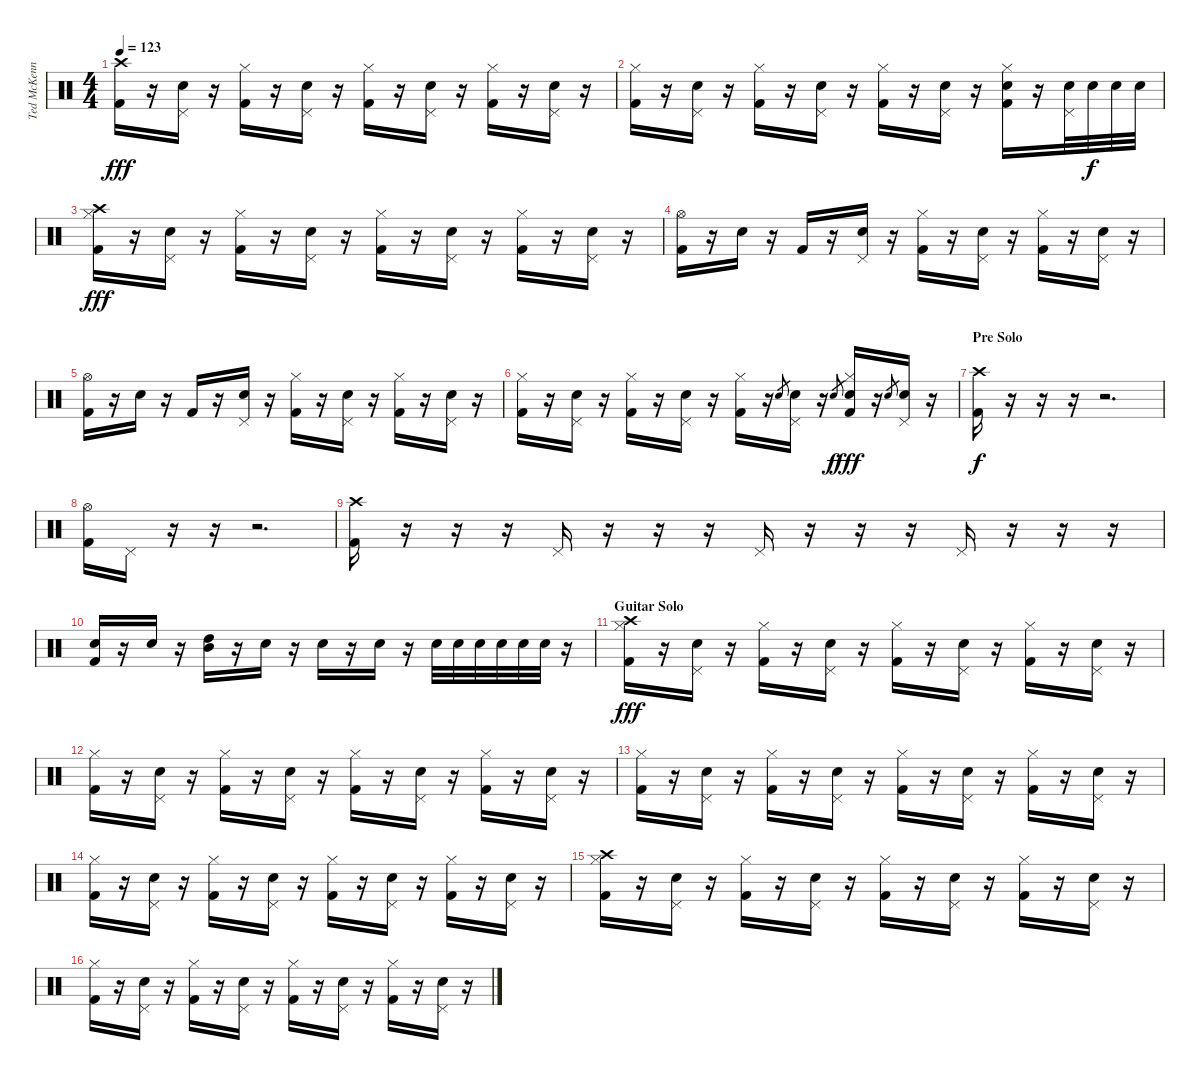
\track ("Ted McKenna" "Ted McKenn") {instrument percussion}
\staff {score}
\articulation defaults
\ts (4 4)
\tempo 123
\clef neutral
\ks c
("Crash high (hit)" "Kick (hit) 2").16{dy fff} r.16 ("Snare (hit) 2" "Pedal Hi-Hat (hit)").16 r.16 ("Hi-Hat (closed)" "Kick (hit) 2").16 r.16 ("Snare (hit) 2" "Pedal Hi-Hat (hit)").16 r.16 ("Hi-Hat (closed)" "Kick (hit) 2").16 r.16 ("Snare (hit) 2" "Pedal Hi-Hat (hit)").16 r.16 ("Hi-Hat (closed)" "Kick (hit) 2").16 r.16 ("Snare (hit) 2" "Pedal Hi-Hat (hit)").16 r.16 |
("Hi-Hat (closed)" "Kick (hit) 2").16 r.16 ("Snare (hit) 2" "Pedal Hi-Hat (hit)").16 r.16 ("Hi-Hat (closed)" "Kick (hit) 2").16 r.16 ("Snare (hit) 2" "Pedal Hi-Hat (hit)").16 r.16 ("Hi-Hat (closed)" "Kick (hit) 2").16 r.16 ("Snare (hit) 2" "Pedal Hi-Hat (hit)").16 r.16 ("Snare (hit) 2" "Hi-Hat (closed)" "Kick (hit) 2").16 r.16 ("Electric Snare (hit)" "Pedal Hi-Hat (hit)").32 "Electric Snare (hit)".32{dy f} "Electric Snare (hit)".32 "Electric Snare (hit)".32 |
("Crash high (hit)" "Hi-Hat (closed)" "Kick (hit) 2").16{dy fff} r.16 ("Snare (hit) 2" "Pedal Hi-Hat (hit)").16 r.16 ("Hi-Hat (closed)" "Kick (hit) 2").16 r.16 ("Snare (hit) 2" "Pedal Hi-Hat (hit)").16 r.16 ("Hi-Hat (closed)" "Kick (hit) 2").16 r.16 ("Snare (hit) 2" "Pedal Hi-Hat (hit)").16 r.16 ("Hi-Hat (closed)" "Kick (hit) 2").16 r.16 ("Snare (hit) 2" "Pedal Hi-Hat (hit)").16 r.16 |
("Hi-Hat (open)" "Kick (hit) 2").16 r.16 "Snare (hit) 2".16 r.16 "Kick (hit) 2".16 r.16 ("Snare (hit) 2" "Pedal Hi-Hat (hit)").16 r.16 ("Hi-Hat (closed)" "Kick (hit) 2").16 r.16 ("Snare (hit) 2" "Pedal Hi-Hat (hit)").16 r.16 ("Hi-Hat (closed)" "Kick (hit) 2").16 r.16 ("Snare (hit) 2" "Pedal Hi-Hat (hit)").16 r.16 |
("Hi-Hat (open)" "Kick (hit) 2").16 r.16 "Snare (hit) 2".16 r.16 "Kick (hit) 2".16 r.16 ("Snare (hit) 2" "Pedal Hi-Hat (hit)").16 r.16 ("Hi-Hat (closed)" "Kick (hit) 2").16 r.16 ("Snare (hit) 2" "Pedal Hi-Hat (hit)").16 r.16 ("Hi-Hat (closed)" "Kick (hit) 2").16 r.16 ("Snare (hit) 2" "Pedal Hi-Hat (hit)").16 r.16 |
("Hi-Hat (closed)" "Kick (hit) 2").16 r.16 ("Snare (hit) 2" "Pedal Hi-Hat (hit)").16 r.16 ("Hi-Hat (closed)" "Kick (hit) 2").16 r.16 ("Snare (hit) 2" "Pedal Hi-Hat (hit)").16 r.16 ("Hi-Hat (closed)" "Kick (hit) 2").16 r.16 "Electric Snare (hit)".8{gr} ("Electric Snare (hit)" "Pedal Hi-Hat (hit)").16 r.16 "Electric Snare (hit)".8{gr dy f} ("Electric Snare (hit)" "Hi-Hat (closed)" "Kick (hit) 2").16{dy fff} r.16 "Electric Snare (hit)".8{gr} ("Electric Snare (hit)" "Pedal Hi-Hat (hit)").16 r.16 |
\section ("" "Pre Solo")
("Crash high (hit)" "Kick (hit) 2").16{dy f} r.16 r.16 r.16 r.2{d} |
("Hi-Hat (open)" "Kick (hit) 2").16 "Pedal Hi-Hat (hit)".16 r.16 r.16 r.2{d} |
("Crash high (hit)" "Kick (hit) 2").16 r.16 r.16 r.16 "Pedal Hi-Hat (hit)".16 r.16 r.16 r.16 "Pedal Hi-Hat (hit)".16 r.16 r.16 r.16 "Pedal Hi-Hat (hit)".16 r.16 r.16 r.16 |
("Electric Snare (hit)" "Kick (hit) 2").16 r.16 "Snare (hit) 2".16 r.16 ("Mid Tom (hit)" "High Tom (hit)").16 r.16 "Electric Snare (hit)".16 r.16 "Snare (hit) 2".16 r.16 "Electric Snare (hit)".16 r.16 "Electric Snare (hit)".32 "Electric Snare (hit)".32 "Electric Snare (hit)".32 "Electric Snare (hit)".32 "Electric Snare (hit)".32 "Electric Snare (hit)".32 r.16 |
\section ("" "Guitar Solo")
("Crash high (hit)" "Hi-Hat (closed)" "Kick (hit) 2").16{dy fff} r.16 ("Snare (hit) 2" "Pedal Hi-Hat (hit)").16 r.16 ("Hi-Hat (closed)" "Kick (hit) 2").16 r.16 ("Snare (hit) 2" "Pedal Hi-Hat (hit)").16 r.16 ("Hi-Hat (closed)" "Kick (hit) 2").16 r.16 ("Snare (hit) 2" "Pedal Hi-Hat (hit)").16 r.16 ("Hi-Hat (closed)" "Kick (hit) 2").16 r.16 ("Snare (hit) 2" "Pedal Hi-Hat (hit)").16 r.16 |
("Hi-Hat (closed)" "Kick (hit) 2").16 r.16 ("Snare (hit) 2" "Pedal Hi-Hat (hit)").16 r.16 ("Hi-Hat (closed)" "Kick (hit) 2").16 r.16 ("Snare (hit) 2" "Pedal Hi-Hat (hit)").16 r.16 ("Hi-Hat (closed)" "Kick (hit) 2").16 r.16 ("Snare (hit) 2" "Pedal Hi-Hat (hit)").16 r.16 ("Hi-Hat (closed)" "Kick (hit) 2").16 r.16 ("Snare (hit) 2" "Pedal Hi-Hat (hit)").16 r.16 |
("Hi-Hat (closed)" "Kick (hit) 2").16 r.16 ("Snare (hit) 2" "Pedal Hi-Hat (hit)").16 r.16 ("Hi-Hat (closed)" "Kick (hit) 2").16 r.16 ("Snare (hit) 2" "Pedal Hi-Hat (hit)").16 r.16 ("Hi-Hat (closed)" "Kick (hit) 2").16 r.16 ("Snare (hit) 2" "Pedal Hi-Hat (hit)").16 r.16 ("Hi-Hat (closed)" "Kick (hit) 2").16 r.16 ("Snare (hit) 2" "Pedal Hi-Hat (hit)").16 r.16 |
("Hi-Hat (closed)" "Kick (hit) 2").16 r.16 ("Snare (hit) 2" "Pedal Hi-Hat (hit)").16 r.16 ("Hi-Hat (closed)" "Kick (hit) 2").16 r.16 ("Snare (hit) 2" "Pedal Hi-Hat (hit)").16 r.16 ("Hi-Hat (closed)" "Kick (hit) 2").16 r.16 ("Snare (hit) 2" "Pedal Hi-Hat (hit)").16 r.16 ("Hi-Hat (closed)" "Kick (hit) 2").16 r.16 ("Snare (hit) 2" "Pedal Hi-Hat (hit)").16 r.16 |
("Crash high (hit)" "Hi-Hat (closed)" "Kick (hit) 2").16 r.16 ("Snare (hit) 2" "Pedal Hi-Hat (hit)").16 r.16 ("Hi-Hat (closed)" "Kick (hit) 2").16 r.16 ("Snare (hit) 2" "Pedal Hi-Hat (hit)").16 r.16 ("Hi-Hat (closed)" "Kick (hit) 2").16 r.16 ("Snare (hit) 2" "Pedal Hi-Hat (hit)").16 r.16 ("Hi-Hat (closed)" "Kick (hit) 2").16 r.16 ("Snare (hit) 2" "Pedal Hi-Hat (hit)").16 r.16 |
("Hi-Hat (closed)" "Kick (hit) 2").16 r.16 ("Snare (hit) 2" "Pedal Hi-Hat (hit)").16 r.16 ("Hi-Hat (closed)" "Kick (hit) 2").16 r.16 ("Snare (hit) 2" "Pedal Hi-Hat (hit)").16 r.16 ("Hi-Hat (closed)" "Kick (hit) 2").16 r.16 ("Snare (hit) 2" "Pedal Hi-Hat (hit)").16 r.16 ("Hi-Hat (closed)" "Kick (hit) 2").16 r.16 ("Snare (hit) 2" "Pedal Hi-Hat (hit)").16 r.16
